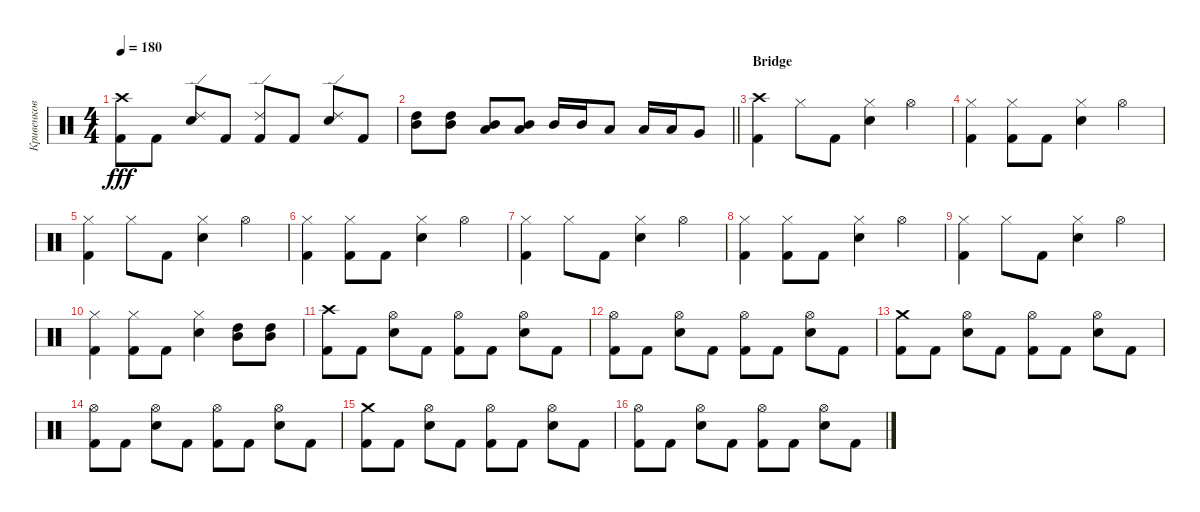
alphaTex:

\track ("Кривенков" "Кривенков") {instrument percussion}
\staff {score}
\articulation defaults
\ts (4 4)
\tempo 180
\clef neutral
\ks c
("Crash high (hit)" "Kick (hit) 2").8{dy fff} "Kick (hit) 2".8 ("Ride (edge) 2" "Snare (hit) 2").8 "Kick (hit) 2".8 ("Kick (hit) 2" "Ride (edge) 2").8 "Kick (hit) 2".8 ("Ride (edge) 2" "Snare (hit) 2").8 "Kick (hit) 2".8 |
\barLineRight lightlight
("High Tom (hit)" "Mid Tom (hit)").8 ("High Tom (hit)" "Mid Tom (hit)").8 ("Low Tom (hit)" "Mid Tom (hit)").8 ("Low Tom (hit)" "Mid Tom (hit)").8 "Mid Tom (hit)".16 "Mid Tom (hit)".16 "Low Tom (hit)".8 "Low Tom (hit)".16 "Low Tom (hit)".16 "Very Low Tom (hit)".8 |
\section ("" "Bridge")
("Crash high (hit)" "Kick (hit) 2").4 "Hi-Hat (closed)".8 "Kick (hit) 2".8 ("Snare (hit) 2" "Hi-Hat (closed)").4 "Hi-Hat (open)".4 |
("Kick (hit) 2" "Hi-Hat (closed)").4 ("Hi-Hat (closed)" "Kick (hit) 2").8 "Kick (hit) 2".8 ("Snare (hit) 2" "Hi-Hat (closed)").4 "Hi-Hat (open)".4 |
("Hi-Hat (closed)" "Kick (hit) 2").4 "Hi-Hat (closed)".8 "Kick (hit) 2".8 ("Snare (hit) 2" "Hi-Hat (closed)").4 "Hi-Hat (open)".4 |
("Hi-Hat (closed)" "Kick (hit) 2").4 ("Hi-Hat (closed)" "Kick (hit) 2").8 "Kick (hit) 2".8 ("Hi-Hat (closed)" "Snare (hit) 2").4 "Hi-Hat (open)".4 |
("Kick (hit) 2" "Hi-Hat (closed)").4 "Hi-Hat (closed)".8 "Kick (hit) 2".8 ("Snare (hit) 2" "Hi-Hat (closed)").4 "Hi-Hat (open)".4 |
("Kick (hit) 2" "Hi-Hat (closed)").4 ("Hi-Hat (closed)" "Kick (hit) 2").8 "Kick (hit) 2".8 ("Hi-Hat (closed)" "Snare (hit) 2").4 "Hi-Hat (open)".4 |
("Kick (hit) 2" "Hi-Hat (closed)").4 "Hi-Hat (closed)".8 "Kick (hit) 2".8 ("Snare (hit) 2" "Hi-Hat (closed)").4 "Hi-Hat (open)".4 |
("Hi-Hat (closed)" "Kick (hit) 2").4 ("Kick (hit) 2" "Hi-Hat (closed)").8 "Kick (hit) 2".8 ("Hi-Hat (closed)" "Snare (hit) 2").4 ("High Tom (hit)" "Mid Tom (hit)").8 ("Mid Tom (hit)" "High Tom (hit)").8 |
("Kick (hit) 2" "Crash high (hit)").8 "Kick (hit) 2".8 ("Snare (hit) 2" "Hi-Hat (open)").8 "Kick (hit) 2".8 ("Hi-Hat (open)" "Kick (hit) 2").8 "Kick (hit) 2".8 ("Hi-Hat (open)" "Snare (hit) 2").8 "Kick (hit) 2".8 |
("Kick (hit) 2" "Hi-Hat (open)").8 "Kick (hit) 2".8 ("Hi-Hat (open)" "Snare (hit) 2").8 "Kick (hit) 2".8 ("Kick (hit) 2" "Hi-Hat (open)").8 "Kick (hit) 2".8 ("Hi-Hat (open)" "Snare (hit) 2").8 "Kick (hit) 2".8 |
("Crash medium (hit)" "Kick (hit) 2").8 "Kick (hit) 2".8 ("Snare (hit) 2" "Hi-Hat (open)").8 "Kick (hit) 2".8 ("Kick (hit) 2" "Hi-Hat (open)").8 "Kick (hit) 2".8 ("Snare (hit) 2" "Hi-Hat (open)").8 "Kick (hit) 2".8 |
("Kick (hit) 2" "Hi-Hat (open)").8 "Kick (hit) 2".8 ("Snare (hit) 2" "Hi-Hat (open)").8 "Kick (hit) 2".8 ("Kick (hit) 2" "Hi-Hat (open)").8 "Kick (hit) 2".8 ("Snare (hit) 2" "Hi-Hat (open)").8 "Kick (hit) 2".8 |
("Kick (hit) 2" "Crash medium (hit)").8 "Kick (hit) 2".8 ("Hi-Hat (open)" "Snare (hit) 2").8 "Kick (hit) 2".8 ("Hi-Hat (open)" "Kick (hit) 2").8 "Kick (hit) 2".8 ("Snare (hit) 2" "Hi-Hat (open)").8 "Kick (hit) 2".8 |
("Kick (hit) 2" "Hi-Hat (open)").8 "Kick (hit) 2".8 ("Hi-Hat (open)" "Snare (hit) 2").8 "Kick (hit) 2".8 ("Kick (hit) 2" "Hi-Hat (open)").8 "Kick (hit) 2".8 ("Hi-Hat (open)" "Snare (hit) 2").8 "Kick (hit) 2".8
